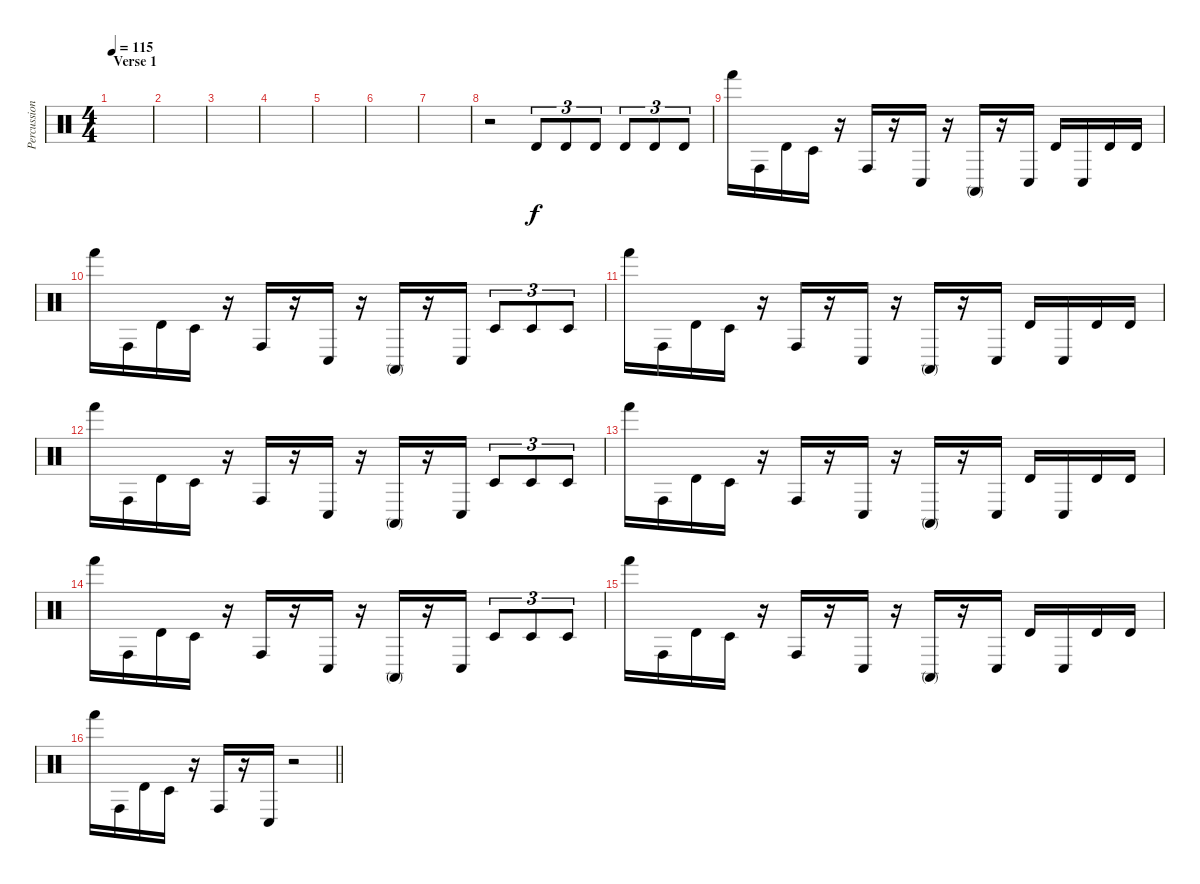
\track ("Percussion (experiment)" "Percussion") {instrument percussion}
\staff {score}
\articulation defaults
\ts (4 4)
\section ("" "Verse 1")
\tempo 115
\clef neutral
\ks c
|
|
|
|
|
|
|
r.2 "Timbale high (hit)".8{tu (3 2)} "Timbale high (hit)".8{tu (3 2)} "Timbale high (hit)".8{tu (3 2)} "Timbale high (hit)".8{tu (3 2)} "Timbale high (hit)".8{tu (3 2)} "Timbale high (hit)".8{tu (3 2)} |
"Hand (hit)".16 "Conga high (hit)".16 "Timbale high (hit)".16 "Timbale low (hit)".16 r.16 "Conga high (hit)".16 r.16 "Conga low (hit)".16 r.16 "Conga high (mute)".16 r.16 "Conga low (hit)".16 "Timbale high (hit)".16 "Conga low (hit)".16 "Timbale high (hit)".16 "Timbale high (hit)".16 |
"Hand (hit)".16 "Conga high (hit)".16 "Timbale high (hit)".16 "Timbale low (hit)".16 r.16 "Conga high (hit)".16 r.16 "Conga low (hit)".16 r.16 "Conga high (mute)".16 r.16 "Conga low (hit)".16 "Timbale low (hit)".8{tu (3 2)} "Timbale low (hit)".8{tu (3 2)} "Timbale low (hit)".8{tu (3 2)} |
"Hand (hit)".16 "Conga high (hit)".16 "Timbale high (hit)".16 "Timbale low (hit)".16 r.16 "Conga high (hit)".16 r.16 "Conga low (hit)".16 r.16 "Conga high (mute)".16 r.16 "Conga low (hit)".16 "Timbale high (hit)".16 "Conga low (hit)".16 "Timbale high (hit)".16 "Timbale high (hit)".16 |
"Hand (hit)".16 "Conga high (hit)".16 "Timbale high (hit)".16 "Timbale low (hit)".16 r.16 "Conga high (hit)".16 r.16 "Conga low (hit)".16 r.16 "Conga high (mute)".16 r.16 "Conga low (hit)".16 "Timbale low (hit)".8{tu (3 2)} "Timbale low (hit)".8{tu (3 2)} "Timbale low (hit)".8{tu (3 2)} |
"Hand (hit)".16 "Conga high (hit)".16 "Timbale high (hit)".16 "Timbale low (hit)".16 r.16 "Conga high (hit)".16 r.16 "Conga low (hit)".16 r.16 "Conga high (mute)".16 r.16 "Conga low (hit)".16 "Timbale high (hit)".16 "Conga low (hit)".16 "Timbale high (hit)".16 "Timbale high (hit)".16 |
"Hand (hit)".16 "Conga high (hit)".16 "Timbale high (hit)".16 "Timbale low (hit)".16 r.16 "Conga high (hit)".16 r.16 "Conga low (hit)".16 r.16 "Conga high (mute)".16 r.16 "Conga low (hit)".16 "Timbale low (hit)".8{tu (3 2)} "Timbale low (hit)".8{tu (3 2)} "Timbale low (hit)".8{tu (3 2)} |
"Hand (hit)".16 "Conga high (hit)".16 "Timbale high (hit)".16 "Timbale low (hit)".16 r.16 "Conga high (hit)".16 r.16 "Conga low (hit)".16 r.16 "Conga high (mute)".16 r.16 "Conga low (hit)".16 "Timbale high (hit)".16 "Conga low (hit)".16 "Timbale high (hit)".16 "Timbale high (hit)".16 |
\barLineRight lightlight "Hand (hit)".16 "Conga high (hit)".16 "Timbale high (hit)".16 "Timbale low (hit)".16
r.16 "Conga high (hit)".16 r.16 "Conga low (hit)".16 r.2
